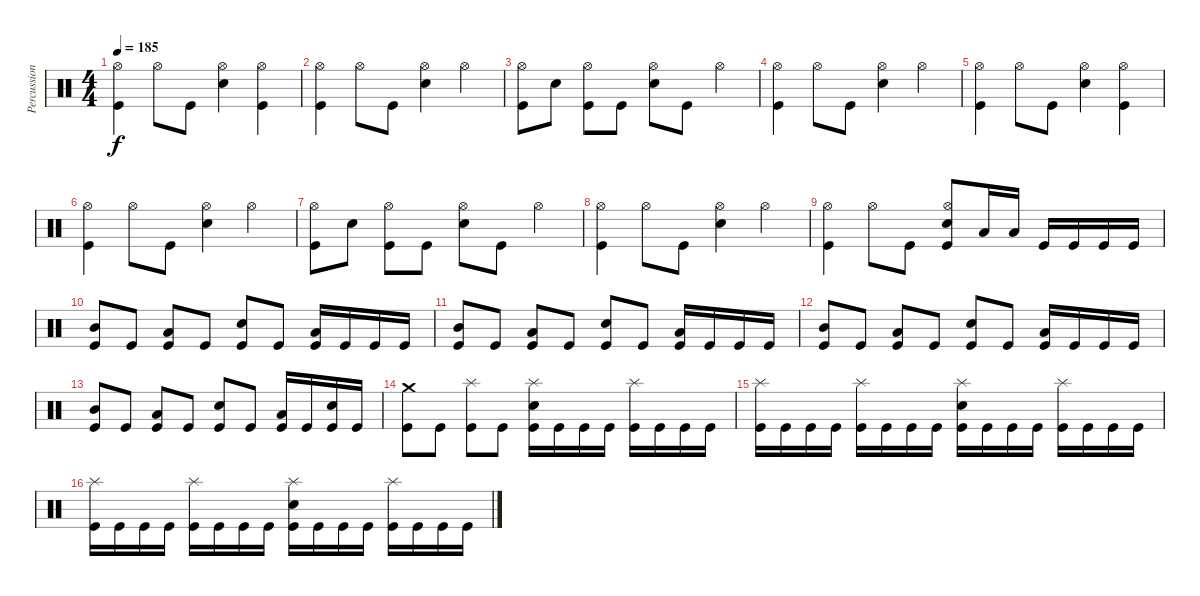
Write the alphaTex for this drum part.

\track ("Percussions" "Percussion") {instrument percussion}
\staff {score}
\articulation defaults
\ts (4 4)
\tempo 185
\clef neutral
\ks c
("Kick (hit)" "Hi-Hat (open)").4{dy f} "Hi-Hat (open)".8 "Kick (hit)".8 ("Electric Snare (hit)" "Hi-Hat (open)").4 ("Kick (hit)" "Hi-Hat (open)").4 |
("Kick (hit)" "Hi-Hat (open)").4 "Hi-Hat (open)".8 "Kick (hit)".8 ("Electric Snare (hit)" "Hi-Hat (open)").4 "Hi-Hat (open)".4 |
("Kick (hit)" "Hi-Hat (open)").8 "Electric Snare (hit)".8 ("Kick (hit)" "Hi-Hat (open)").8 "Kick (hit)".8 ("Electric Snare (hit)" "Hi-Hat (open)").8 "Kick (hit)".8 "Hi-Hat (open)".4 |
("Kick (hit)" "Hi-Hat (open)").4 "Hi-Hat (open)".8 "Kick (hit)".8 ("Electric Snare (hit)" "Hi-Hat (open)").4 "Hi-Hat (open)".4 |
("Kick (hit)" "Hi-Hat (open)").4 "Hi-Hat (open)".8 "Kick (hit)".8 ("Electric Snare (hit)" "Hi-Hat (open)").4 ("Kick (hit)" "Hi-Hat (open)").4 |
("Kick (hit)" "Hi-Hat (open)").4 "Hi-Hat (open)".8 "Kick (hit)".8 ("Electric Snare (hit)" "Hi-Hat (open)").4 "Hi-Hat (open)".4 |
("Kick (hit)" "Hi-Hat (open)").8 "Electric Snare (hit)".8 ("Kick (hit)" "Hi-Hat (open)").8 "Kick (hit)".8 ("Electric Snare (hit)" "Hi-Hat (open)").8 "Kick (hit)".8 "Hi-Hat (open)".4 |
("Kick (hit)" "Hi-Hat (open)").4 "Hi-Hat (open)".8 "Kick (hit)".8 ("Electric Snare (hit)" "Hi-Hat (open)").4 "Hi-Hat (open)".4 |
("Kick (hit)" "Hi-Hat (open)").4 "Hi-Hat (open)".8 "Kick (hit)".8 ("Kick (hit)" "Electric Snare (hit)" "Hi-Hat (open)").8 "Low Tom (hit)".16 "Low Tom (hit)".16 "Kick (hit)".16 "Kick (hit)".16 "Kick (hit)".16 "Kick (hit)".16 |
("Kick (hit)" "Mid Tom (hit)").8 "Kick (hit)".8 ("Kick (hit)" "Low Tom (hit)").8 "Kick (hit)".8 ("Kick (hit)" "Electric Snare (hit)").8 "Kick (hit)".8 ("Kick (hit)" "Low Tom (hit)").16 "Kick (hit)".16 "Kick (hit)".16 "Kick (hit)".16 |
("Kick (hit)" "Mid Tom (hit)").8 "Kick (hit)".8 ("Kick (hit)" "Low Tom (hit)").8 "Kick (hit)".8 ("Kick (hit)" "Electric Snare (hit)").8 "Kick (hit)".8 ("Kick (hit)" "Low Tom (hit)").16 "Kick (hit)".16 "Kick (hit)".16 "Kick (hit)".16 |
("Kick (hit)" "Mid Tom (hit)").8 "Kick (hit)".8 ("Kick (hit)" "Low Tom (hit)").8 "Kick (hit)".8 ("Kick (hit)" "Electric Snare (hit)").8 "Kick (hit)".8 ("Kick (hit)" "Low Tom (hit)").16 "Kick (hit)".16 "Kick (hit)".16 "Kick (hit)".16 |
("Kick (hit)" "Mid Tom (hit)").8 "Kick (hit)".8 ("Kick (hit)" "Low Tom (hit)").8 "Kick (hit)".8 ("Kick (hit)" "Electric Snare (hit)").8 "Kick (hit)".8 ("Kick (hit)" "Low Tom (hit)").16 "Kick (hit)".16 ("Kick (hit)" "Electric Snare (hit)").16 "Kick (hit)".16 |
("Kick (hit)" "Crash medium (hit)").8 "Kick (hit)".8 ("Kick (hit)" "Splash (hit)").8 "Kick (hit)".8 ("Kick (hit)" "Electric Snare (hit)" "Splash (hit)").16 "Kick (hit)".16 "Kick (hit)".16 "Kick (hit)".16 ("Kick (hit)" "Splash (hit)").16 "Kick (hit)".16 "Kick (hit)".16 "Kick (hit)".16 |
("Kick (hit)" "Splash (hit)").16 "Kick (hit)".16 "Kick (hit)".16 "Kick (hit)".16 ("Kick (hit)" "Splash (hit)").16 "Kick (hit)".16 "Kick (hit)".16 "Kick (hit)".16 ("Kick (hit)" "Electric Snare (hit)" "Splash (hit)").16 "Kick (hit)".16 "Kick (hit)".16 "Kick (hit)".16 ("Kick (hit)" "Splash (hit)").16 "Kick (hit)".16 "Kick (hit)".16 "Kick (hit)".16 |
("Kick (hit)" "Splash (hit)").16 "Kick (hit)".16 "Kick (hit)".16 "Kick (hit)".16 ("Kick (hit)" "Splash (hit)").16 "Kick (hit)".16 "Kick (hit)".16 "Kick (hit)".16 ("Kick (hit)" "Electric Snare (hit)" "Splash (hit)").16 "Kick (hit)".16 "Kick (hit)".16 "Kick (hit)".16 ("Kick (hit)" "Splash (hit)").16 "Kick (hit)".16 "Kick (hit)".16 "Kick (hit)".16
